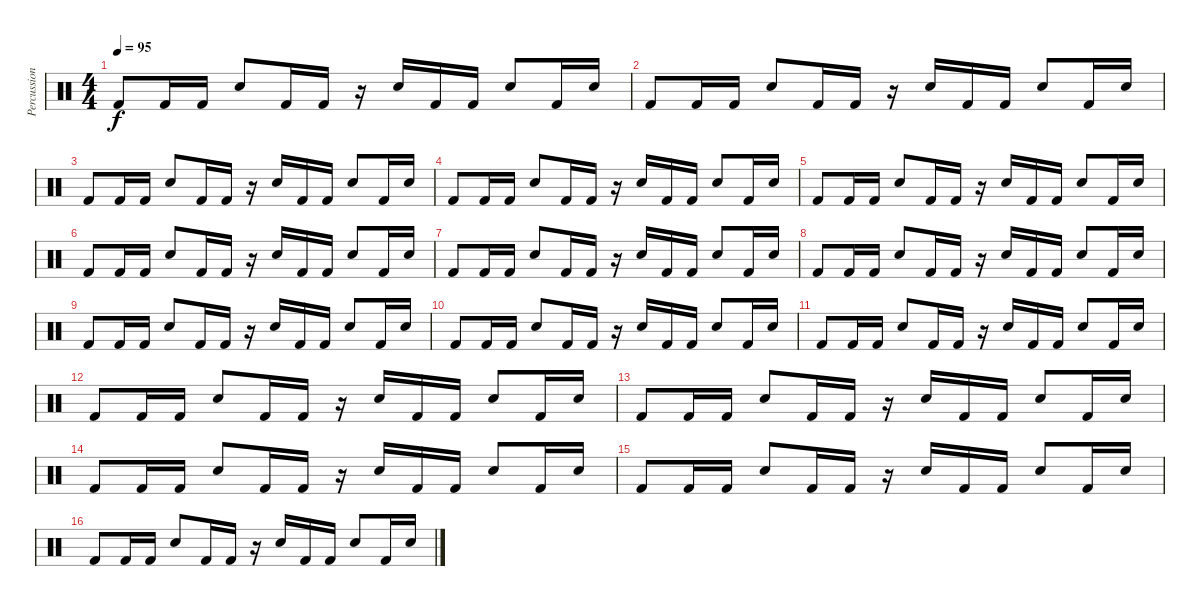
\track ("Percussion" "Percussion") {instrument percussion}
\staff {score}
\articulation defaults
\ts (4 4)
\tempo 95
\clef neutral
\ks c "Kick (hit) 2".8{dy f} "Kick (hit) 2".16 "Kick (hit) 2".16 "Snare (hit) 2".8 "Kick (hit) 2".16 "Kick (hit) 2".16
r.16 "Snare (hit) 2".16 "Kick (hit) 2".16 "Kick (hit) 2".16 "Snare (hit) 2".8 "Kick (hit) 2".16 "Snare (hit) 2".16 |
"Kick (hit) 2".8 "Kick (hit) 2".16 "Kick (hit) 2".16 "Snare (hit) 2".8 "Kick (hit) 2".16 "Kick (hit) 2".16 r.16 "Snare (hit) 2".16 "Kick (hit) 2".16 "Kick (hit) 2".16 "Snare (hit) 2".8 "Kick (hit) 2".16 "Snare (hit) 2".16 |
"Kick (hit) 2".8 "Kick (hit) 2".16 "Kick (hit) 2".16 "Snare (hit) 2".8 "Kick (hit) 2".16 "Kick (hit) 2".16 r.16 "Snare (hit) 2".16 "Kick (hit) 2".16 "Kick (hit) 2".16 "Snare (hit) 2".8 "Kick (hit) 2".16 "Snare (hit) 2".16 |
"Kick (hit) 2".8 "Kick (hit) 2".16 "Kick (hit) 2".16 "Snare (hit) 2".8 "Kick (hit) 2".16 "Kick (hit) 2".16 r.16 "Snare (hit) 2".16 "Kick (hit) 2".16 "Kick (hit) 2".16 "Snare (hit) 2".8 "Kick (hit) 2".16 "Snare (hit) 2".16 |
"Kick (hit) 2".8 "Kick (hit) 2".16 "Kick (hit) 2".16 "Snare (hit) 2".8 "Kick (hit) 2".16 "Kick (hit) 2".16 r.16 "Snare (hit) 2".16 "Kick (hit) 2".16 "Kick (hit) 2".16 "Snare (hit) 2".8 "Kick (hit) 2".16 "Snare (hit) 2".16 |
"Kick (hit) 2".8 "Kick (hit) 2".16 "Kick (hit) 2".16 "Snare (hit) 2".8 "Kick (hit) 2".16 "Kick (hit) 2".16 r.16 "Snare (hit) 2".16 "Kick (hit) 2".16 "Kick (hit) 2".16 "Snare (hit) 2".8 "Kick (hit) 2".16 "Snare (hit) 2".16 |
"Kick (hit) 2".8 "Kick (hit) 2".16 "Kick (hit) 2".16 "Snare (hit) 2".8 "Kick (hit) 2".16 "Kick (hit) 2".16 r.16 "Snare (hit) 2".16 "Kick (hit) 2".16 "Kick (hit) 2".16 "Snare (hit) 2".8 "Kick (hit) 2".16 "Snare (hit) 2".16 |
"Kick (hit) 2".8 "Kick (hit) 2".16 "Kick (hit) 2".16 "Snare (hit) 2".8 "Kick (hit) 2".16 "Kick (hit) 2".16 r.16 "Snare (hit) 2".16 "Kick (hit) 2".16 "Kick (hit) 2".16 "Snare (hit) 2".8 "Kick (hit) 2".16 "Snare (hit) 2".16 |
"Kick (hit) 2".8 "Kick (hit) 2".16 "Kick (hit) 2".16 "Snare (hit) 2".8 "Kick (hit) 2".16 "Kick (hit) 2".16 r.16 "Snare (hit) 2".16 "Kick (hit) 2".16 "Kick (hit) 2".16 "Snare (hit) 2".8 "Kick (hit) 2".16 "Snare (hit) 2".16 |
"Kick (hit) 2".8 "Kick (hit) 2".16 "Kick (hit) 2".16 "Snare (hit) 2".8 "Kick (hit) 2".16 "Kick (hit) 2".16 r.16 "Snare (hit) 2".16 "Kick (hit) 2".16 "Kick (hit) 2".16 "Snare (hit) 2".8 "Kick (hit) 2".16 "Snare (hit) 2".16 |
"Kick (hit) 2".8 "Kick (hit) 2".16 "Kick (hit) 2".16 "Snare (hit) 2".8 "Kick (hit) 2".16 "Kick (hit) 2".16 r.16 "Snare (hit) 2".16 "Kick (hit) 2".16 "Kick (hit) 2".16 "Snare (hit) 2".8 "Kick (hit) 2".16 "Snare (hit) 2".16 |
"Kick (hit) 2".8 "Kick (hit) 2".16 "Kick (hit) 2".16 "Snare (hit) 2".8 "Kick (hit) 2".16 "Kick (hit) 2".16 r.16 "Snare (hit) 2".16 "Kick (hit) 2".16 "Kick (hit) 2".16 "Snare (hit) 2".8 "Kick (hit) 2".16 "Snare (hit) 2".16 |
"Kick (hit) 2".8 "Kick (hit) 2".16 "Kick (hit) 2".16 "Snare (hit) 2".8 "Kick (hit) 2".16 "Kick (hit) 2".16 r.16 "Snare (hit) 2".16 "Kick (hit) 2".16 "Kick (hit) 2".16 "Snare (hit) 2".8 "Kick (hit) 2".16 "Snare (hit) 2".16 |
"Kick (hit) 2".8 "Kick (hit) 2".16 "Kick (hit) 2".16 "Snare (hit) 2".8 "Kick (hit) 2".16 "Kick (hit) 2".16 r.16 "Snare (hit) 2".16 "Kick (hit) 2".16 "Kick (hit) 2".16 "Snare (hit) 2".8 "Kick (hit) 2".16 "Snare (hit) 2".16 |
"Kick (hit) 2".8 "Kick (hit) 2".16 "Kick (hit) 2".16 "Snare (hit) 2".8 "Kick (hit) 2".16 "Kick (hit) 2".16 r.16 "Snare (hit) 2".16 "Kick (hit) 2".16 "Kick (hit) 2".16 "Snare (hit) 2".8 "Kick (hit) 2".16 "Snare (hit) 2".16 |
"Kick (hit) 2".8 "Kick (hit) 2".16 "Kick (hit) 2".16 "Snare (hit) 2".8 "Kick (hit) 2".16 "Kick (hit) 2".16 r.16 "Snare (hit) 2".16 "Kick (hit) 2".16 "Kick (hit) 2".16 "Snare (hit) 2".8 "Kick (hit) 2".16 "Snare (hit) 2".16
